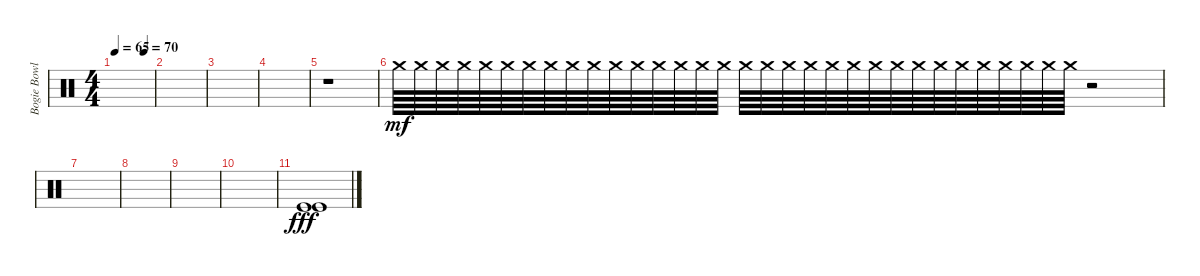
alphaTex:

\track ("Bogie Bowles - Drums" "Bogie Bowl") {instrument percussion}
\staff {score}
\articulation defaults
\ts (4 4)
\tempo 65
\tempo (70 0.75)
\clef neutral
\ks c
|
|
|
|
r.1{volume 0} |
"Crash medium (hit)".64{dy mf volume 6} "Crash medium (hit)".64 "Crash medium (hit)".64 "Crash medium (hit)".64 "Crash medium (hit)".64 "Crash medium (hit)".64 "Crash medium (hit)".64 "Crash medium (hit)".64 "Crash medium (hit)".64 "Crash medium (hit)".64 "Crash medium (hit)".64 "Crash medium (hit)".64 "Crash medium (hit)".64 "Crash medium (hit)".64 "Crash medium (hit)".64 "Crash medium (hit)".64 "Crash medium (hit)".64{volume 0} "Crash medium (hit)".64 "Crash medium (hit)".64 "Crash medium (hit)".64 "Crash medium (hit)".64 "Crash medium (hit)".64 "Crash medium (hit)".64 "Crash medium (hit)".64 "Crash medium (hit)".64 "Crash medium (hit)".64 "Crash medium (hit)".64 "Crash medium (hit)".64 "Crash medium (hit)".64 "Crash medium (hit)".64 "Crash medium (hit)".64 "Crash medium (hit)".64 r.2 |
|
|
|
|
("Kick (hit)" "Kick (hit)").1{dy fff volume 16}
